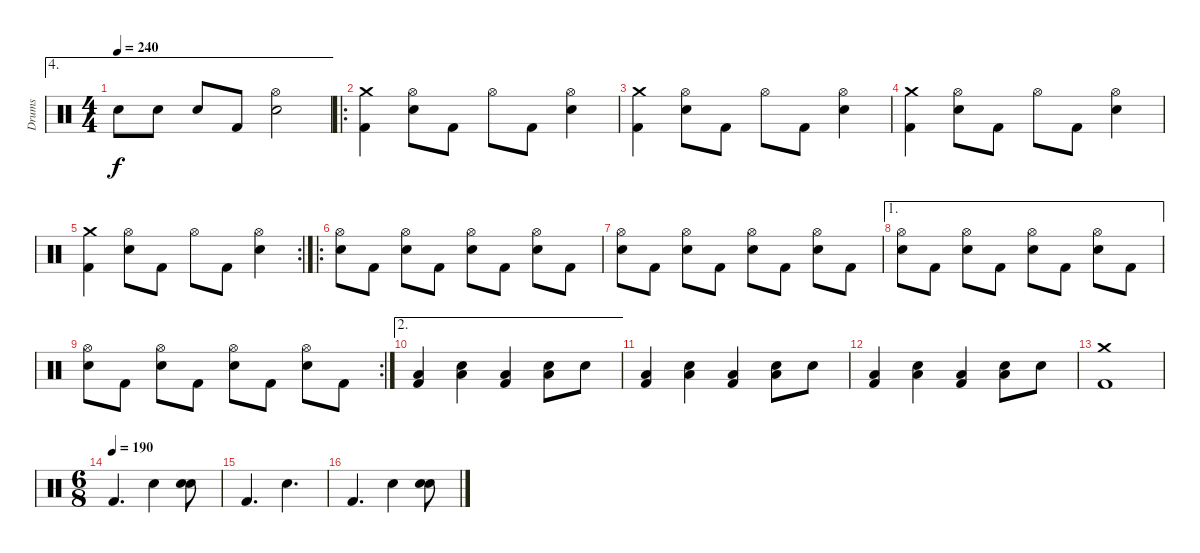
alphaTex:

\track ("Drums" "Drums") {instrument percussion}
\staff {score}
\articulation defaults
\ae 4
\ts (4 4)
\tempo 240
\clef neutral
\ks c "Electric Snare (hit)".8{dy f} "Electric Snare (hit)".8 "Electric Snare (hit)".8 "Kick (hit) 2".8
("Hi-Hat (open)" "Electric Snare (hit)").2 |
\ro
("Crash medium (hit)" "Kick (hit) 2").4 ("Hi-Hat (open)" "Electric Snare (hit)").8 "Kick (hit) 2".8 "Hi-Hat (open)".8 "Kick (hit) 2".8 ("Hi-Hat (open)" "Electric Snare (hit)").4 |
("Crash medium (hit)" "Kick (hit) 2").4 ("Hi-Hat (open)" "Electric Snare (hit)").8 "Kick (hit) 2".8 "Hi-Hat (open)".8 "Kick (hit) 2".8 ("Hi-Hat (open)" "Electric Snare (hit)").4 |
("Crash medium (hit)" "Kick (hit) 2").4 ("Hi-Hat (open)" "Electric Snare (hit)").8 "Kick (hit) 2".8 "Hi-Hat (open)".8 "Kick (hit) 2".8 ("Hi-Hat (open)" "Electric Snare (hit)").4 |
\rc 2
("Crash medium (hit)" "Kick (hit) 2").4 ("Hi-Hat (open)" "Electric Snare (hit)").8 "Kick (hit) 2".8 "Hi-Hat (open)".8 "Kick (hit) 2".8 ("Hi-Hat (open)" "Electric Snare (hit)").4 |
\ro
("Hi-Hat (open)" "Electric Snare (hit)").8 "Kick (hit) 2".8 ("Hi-Hat (open)" "Electric Snare (hit)").8 "Kick (hit) 2".8 ("Hi-Hat (open)" "Electric Snare (hit)").8 "Kick (hit) 2".8 ("Hi-Hat (open)" "Electric Snare (hit)").8 "Kick (hit) 2".8 |
("Hi-Hat (open)" "Electric Snare (hit)").8 "Kick (hit) 2".8 ("Hi-Hat (open)" "Electric Snare (hit)").8 "Kick (hit) 2".8 ("Hi-Hat (open)" "Electric Snare (hit)").8 "Kick (hit) 2".8 ("Hi-Hat (open)" "Electric Snare (hit)").8 "Kick (hit) 2".8 |
\ae 1
("Hi-Hat (open)" "Electric Snare (hit)").8 "Kick (hit) 2".8 ("Hi-Hat (open)" "Electric Snare (hit)").8 "Kick (hit) 2".8 ("Hi-Hat (open)" "Electric Snare (hit)").8 "Kick (hit) 2".8 ("Hi-Hat (open)" "Electric Snare (hit)").8 "Kick (hit) 2".8 |
\rc 2
("Hi-Hat (open)" "Electric Snare (hit)").8 "Kick (hit) 2".8 ("Hi-Hat (open)" "Electric Snare (hit)").8 "Kick (hit) 2".8 ("Hi-Hat (open)" "Electric Snare (hit)").8 "Kick (hit) 2".8 ("Hi-Hat (open)" "Electric Snare (hit)").8 "Kick (hit) 2".8 |
\ae 2
("Low Tom (hit)" "Kick (hit) 2").4 ("Low Tom (hit)" "Electric Snare (hit)").4 ("Low Tom (hit)" "Kick (hit) 2").4 ("Low Tom (hit)" "Electric Snare (hit)").8 "Electric Snare (hit)".8 |
("Low Tom (hit)" "Kick (hit) 2").4 ("Low Tom (hit)" "Electric Snare (hit)").4 ("Low Tom (hit)" "Kick (hit) 2").4 ("Low Tom (hit)" "Electric Snare (hit)").8 "Electric Snare (hit)".8 |
("Low Tom (hit)" "Kick (hit) 2").4 ("Low Tom (hit)" "Electric Snare (hit)").4 ("Low Tom (hit)" "Kick (hit) 2").4 ("Low Tom (hit)" "Electric Snare (hit)").8 "Electric Snare (hit)".8 |
("Crash medium (hit)" "Kick (hit) 2").1 |
\ts (6 8)
\tempo (190)
"Kick (hit) 2".4{d} "Electric Snare (hit)".4 ("Electric Snare (hit)" "Electric Snare (hit)").8{bd 480} |
"Kick (hit) 2".4{d} "Electric Snare (hit)".4{d} |
"Kick (hit) 2".4{d} "Electric Snare (hit)".4 ("Electric Snare (hit)" "Electric Snare (hit)").8{bd 480}
